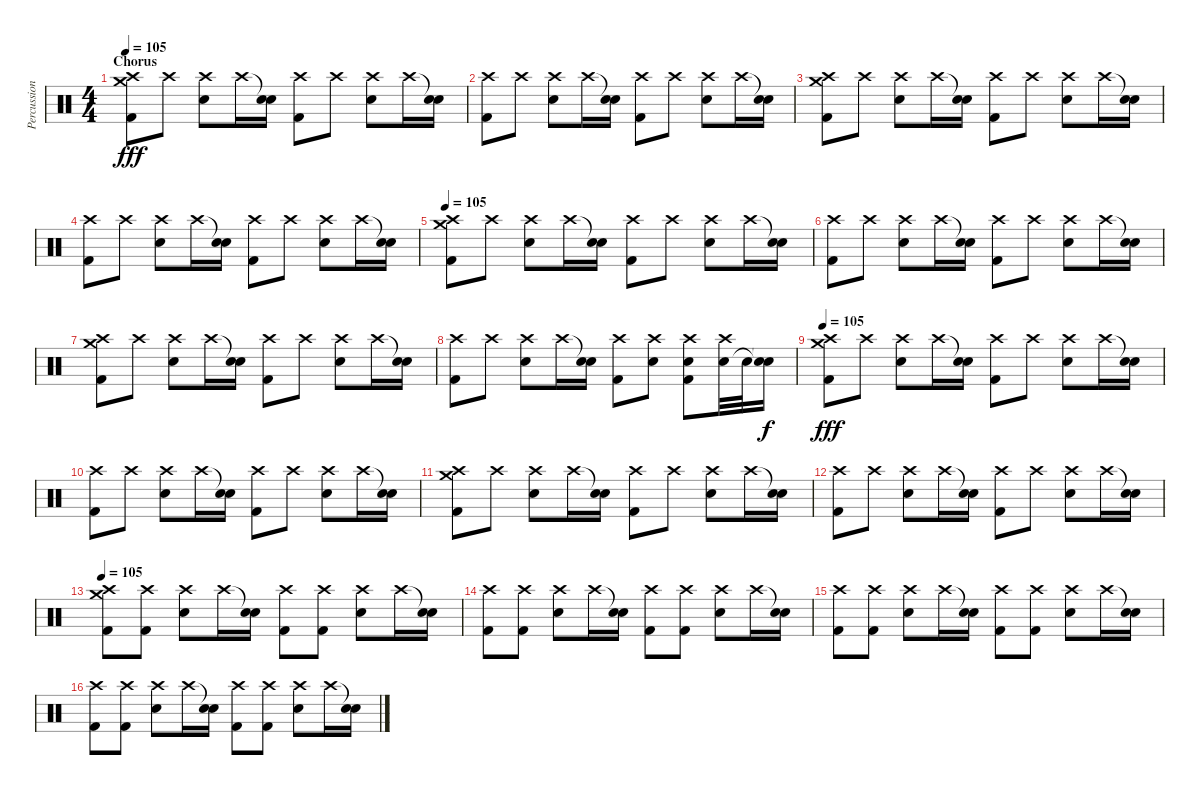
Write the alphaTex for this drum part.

\track ("Percussion" "Percussion") {instrument percussion}
\staff {score}
\articulation defaults
\ts (4 4)
\section ("" "Chorus")
\tempo 105
\clef neutral
\ks c
("Crash medium (hit)" "Crash high (hit)" "Kick (hit) 2").8{dy fff} "Crash high (hit)".8 ("Crash high (hit)" "Electric Snare (hit)").8 "Crash high (hit)".16 ("Snare (hit)"{t} "Electric Snare (hit)").16 ("Crash high (hit)" "Kick (hit) 2").8 "Crash high (hit)".8 ("Crash high (hit)" "Electric Snare (hit)").8 "Crash high (hit)".16 ("Snare (hit)"{t} "Electric Snare (hit)").16 |
("Crash high (hit)" "Kick (hit) 2").8 "Crash high (hit)".8 ("Crash high (hit)" "Electric Snare (hit)").8 "Crash high (hit)".16 ("Snare (hit)"{t} "Electric Snare (hit)").16 ("Crash high (hit)" "Kick (hit) 2").8 "Crash high (hit)".8 ("Crash high (hit)" "Electric Snare (hit)").8 "Crash high (hit)".16 ("Snare (hit)"{t} "Electric Snare (hit)").16 |
("Crash medium (hit)" "Crash high (hit)" "Kick (hit) 2").8 "Crash high (hit)".8 ("Crash high (hit)" "Electric Snare (hit)").8 "Crash high (hit)".16 ("Snare (hit)"{t} "Electric Snare (hit)").16 ("Crash high (hit)" "Kick (hit) 2").8 "Crash high (hit)".8 ("Crash high (hit)" "Electric Snare (hit)").8 "Crash high (hit)".16 ("Snare (hit)"{t} "Electric Snare (hit)").16 |
("Crash high (hit)" "Kick (hit) 2").8 "Crash high (hit)".8 ("Crash high (hit)" "Electric Snare (hit)").8 "Crash high (hit)".16 ("Snare (hit)"{t} "Electric Snare (hit)").16 ("Crash high (hit)" "Kick (hit) 2").8 "Crash high (hit)".8 ("Crash high (hit)" "Electric Snare (hit)").8 "Crash high (hit)".16 ("Snare (hit)"{t} "Electric Snare (hit)").16 |
\tempo 105
("Crash medium (hit)" "Crash high (hit)" "Kick (hit) 2").8 "Crash high (hit)".8 ("Crash high (hit)" "Electric Snare (hit)").8 "Crash high (hit)".16 ("Snare (hit)"{t} "Electric Snare (hit)").16 ("Crash high (hit)" "Kick (hit) 2").8 "Crash high (hit)".8 ("Crash high (hit)" "Electric Snare (hit)").8 "Crash high (hit)".16 ("Snare (hit)"{t} "Electric Snare (hit)").16 |
("Crash high (hit)" "Kick (hit) 2").8 "Crash high (hit)".8 ("Crash high (hit)" "Electric Snare (hit)").8 "Crash high (hit)".16 ("Snare (hit)"{t} "Electric Snare (hit)").16 ("Crash high (hit)" "Kick (hit) 2").8 "Crash high (hit)".8 ("Crash high (hit)" "Electric Snare (hit)").8 "Crash high (hit)".16 ("Snare (hit)"{t} "Electric Snare (hit)").16 |
("Crash medium (hit)" "Crash high (hit)" "Kick (hit) 2").8 "Crash high (hit)".8 ("Crash high (hit)" "Electric Snare (hit)").8 "Crash high (hit)".16 ("Snare (hit)"{t} "Electric Snare (hit)").16 ("Crash high (hit)" "Kick (hit) 2").8 "Crash high (hit)".8 ("Crash high (hit)" "Electric Snare (hit)").8 "Crash high (hit)".16 ("Snare (hit)"{t} "Electric Snare (hit)").16 |
("Crash high (hit)" "Kick (hit) 2").8 "Crash high (hit)".8 ("Crash high (hit)" "Electric Snare (hit)").8 "Crash high (hit)".16 ("Snare (hit)"{t} "Electric Snare (hit)").16 ("Crash high (hit)" "Kick (hit) 2").8 ("Crash high (hit)" "Electric Snare (hit)").8 ("Crash high (hit)" "Electric Snare (hit)" "Kick (hit) 2").8 ("Crash high (hit)" "Electric Snare (hit)").32 "Electric Snare (hit)".32 ("Snare (hit)"{t} "Snare (hit)"{t}).16{dy f} |
\tempo 105
("Crash medium (hit)" "Crash high (hit)" "Kick (hit) 2").8{dy fff} "Crash high (hit)".8 ("Crash high (hit)" "Electric Snare (hit)").8 "Crash high (hit)".16 ("Snare (hit)"{t} "Electric Snare (hit)").16 ("Crash high (hit)" "Kick (hit) 2").8 "Crash high (hit)".8 ("Crash high (hit)" "Electric Snare (hit)").8 "Crash high (hit)".16 ("Snare (hit)"{t} "Electric Snare (hit)").16 |
("Crash high (hit)" "Kick (hit) 2").8 "Crash high (hit)".8 ("Crash high (hit)" "Electric Snare (hit)").8 "Crash high (hit)".16 ("Snare (hit)"{t} "Electric Snare (hit)").16 ("Crash high (hit)" "Kick (hit) 2").8 "Crash high (hit)".8 ("Crash high (hit)" "Electric Snare (hit)").8 "Crash high (hit)".16 ("Snare (hit)"{t} "Electric Snare (hit)").16 |
("Crash medium (hit)" "Crash high (hit)" "Kick (hit) 2").8 "Crash high (hit)".8 ("Crash high (hit)" "Electric Snare (hit)").8 "Crash high (hit)".16 ("Snare (hit)"{t} "Electric Snare (hit)").16 ("Crash high (hit)" "Kick (hit) 2").8 "Crash high (hit)".8 ("Crash high (hit)" "Electric Snare (hit)").8 "Crash high (hit)".16 ("Snare (hit)"{t} "Electric Snare (hit)").16 |
("Crash high (hit)" "Kick (hit) 2").8 "Crash high (hit)".8 ("Crash high (hit)" "Electric Snare (hit)").8 "Crash high (hit)".16 ("Snare (hit)"{t} "Electric Snare (hit)").16 ("Crash high (hit)" "Kick (hit) 2").8 "Crash high (hit)".8 ("Crash high (hit)" "Electric Snare (hit)").8 "Crash high (hit)".16 ("Snare (hit)"{t} "Electric Snare (hit)").16 |
\tempo 105
("Crash medium (hit)" "Crash high (hit)" "Kick (hit) 2").8 ("Crash high (hit)" "Kick (hit) 2").8 ("Crash high (hit)" "Electric Snare (hit)").8 "Crash high (hit)".16 ("Snare (hit)"{t} "Electric Snare (hit)").16 ("Crash high (hit)" "Kick (hit) 2").8 ("Crash high (hit)" "Kick (hit) 2").8 ("Crash high (hit)" "Electric Snare (hit)").8 "Crash high (hit)".16 ("Snare (hit)"{t} "Electric Snare (hit)").16 |
("Crash high (hit)" "Kick (hit) 2").8 ("Crash high (hit)" "Kick (hit) 2").8 ("Crash high (hit)" "Electric Snare (hit)").8 "Crash high (hit)".16 ("Snare (hit)"{t} "Electric Snare (hit)").16 ("Crash high (hit)" "Kick (hit) 2").8 ("Crash high (hit)" "Kick (hit) 2").8 ("Crash high (hit)" "Electric Snare (hit)").8 "Crash high (hit)".16 ("Snare (hit)"{t} "Electric Snare (hit)").16 |
("Crash high (hit)" "Kick (hit) 2").8 ("Crash high (hit)" "Kick (hit) 2").8 ("Crash high (hit)" "Electric Snare (hit)").8 "Crash high (hit)".16 ("Snare (hit)"{t} "Electric Snare (hit)").16 ("Crash high (hit)" "Kick (hit) 2").8 ("Crash high (hit)" "Kick (hit) 2").8 ("Crash high (hit)" "Electric Snare (hit)").8 "Crash high (hit)".16 ("Snare (hit)"{t} "Electric Snare (hit)").16 |
("Crash high (hit)" "Kick (hit) 2").8 ("Crash high (hit)" "Kick (hit) 2").8 ("Crash high (hit)" "Electric Snare (hit)").8 "Crash high (hit)".16 ("Snare (hit)"{t} "Electric Snare (hit)").16 ("Crash high (hit)" "Kick (hit) 2").8 ("Crash high (hit)" "Kick (hit) 2").8 ("Crash high (hit)" "Electric Snare (hit)").8 "Crash high (hit)".16 ("Snare (hit)"{t} "Electric Snare (hit)").16
